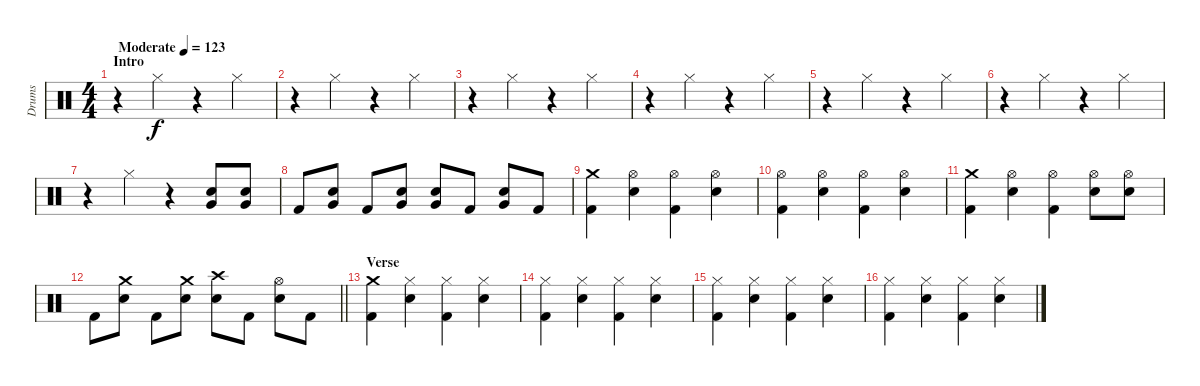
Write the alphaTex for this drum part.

\track ("Drums" "Drums") {instrument percussion}
\staff {score}
\articulation defaults
\ts (4 4)
\section ("" "Intro")
\tempo (123 "Moderate")
\clef neutral
\ks c
r.4{dy f} "Hi-Hat (closed)".4 r.4 "Hi-Hat (closed)".4 |
r.4 "Hi-Hat (closed)".4 r.4 "Hi-Hat (closed)".4 |
r.4 "Hi-Hat (closed)".4 r.4 "Hi-Hat (closed)".4 |
r.4 "Hi-Hat (closed)".4 r.4 "Hi-Hat (closed)".4 |
r.4 "Hi-Hat (closed)".4 r.4 "Hi-Hat (closed)".4 |
r.4 "Hi-Hat (closed)".4 r.4 "Hi-Hat (closed)".4 |
r.4 "Hi-Hat (closed)".4 r.4 ("Electric Snare (hit)" "Very Low Tom (hit)").8 ("Electric Snare (hit)" "Very Low Tom (hit)").8 |
"Kick (hit) 2".8 ("Electric Snare (hit)" "Very Low Tom (hit)").8 "Kick (hit) 2".8 ("Electric Snare (hit)" "Very Low Tom (hit)").8 ("Electric Snare (hit)" "Very Low Tom (hit)").8 "Kick (hit) 2".8 ("Electric Snare (hit)" "Very Low Tom (hit)").8 "Kick (hit) 2".8 |
("Crash medium (hit)" "Kick (hit) 2").4 ("Hi-Hat (open)" "Electric Snare (hit)").4 ("Hi-Hat (open)" "Kick (hit) 2").4 ("Hi-Hat (open)" "Electric Snare (hit)").4 |
("Hi-Hat (open)" "Kick (hit) 2").4 ("Hi-Hat (open)" "Electric Snare (hit)").4 ("Hi-Hat (open)" "Kick (hit) 2").4 ("Hi-Hat (open)" "Electric Snare (hit)").4 |
("Crash medium (hit)" "Kick (hit) 2").4 ("Hi-Hat (open)" "Electric Snare (hit)").4 ("Hi-Hat (open)" "Kick (hit) 2").4 ("Hi-Hat (open)" "Electric Snare (hit)").8 ("Hi-Hat (open)" "Electric Snare (hit)").8 |
\barLineRight lightlight "Kick (hit) 2".8
("Crash medium (hit)" "Electric Snare (hit)").8 "Kick (hit) 2".8 ("Crash medium (hit)" "Electric Snare (hit)").8 ("Crash high (hit)" "Electric Snare (hit)").8 "Kick (hit) 2".8 ("Hi-Hat (open)" "Electric Snare (hit)").8 "Kick (hit) 2".8 |
\section ("" "Verse")
("Crash medium (hit)" "Kick (hit) 2").4 ("Hi-Hat (closed)" "Electric Snare (hit)").4 ("Hi-Hat (closed)" "Kick (hit) 2").4 ("Hi-Hat (closed)" "Electric Snare (hit)").4 |
("Hi-Hat (closed)" "Kick (hit) 2").4 ("Hi-Hat (closed)" "Electric Snare (hit)").4 ("Hi-Hat (closed)" "Kick (hit) 2").4 ("Hi-Hat (closed)" "Electric Snare (hit)").4 |
("Hi-Hat (closed)" "Kick (hit) 2").4 ("Hi-Hat (closed)" "Electric Snare (hit)").4 ("Hi-Hat (closed)" "Kick (hit) 2").4 ("Hi-Hat (closed)" "Electric Snare (hit)").4 |
("Hi-Hat (closed)" "Kick (hit) 2").4 ("Hi-Hat (closed)" "Electric Snare (hit)").4 ("Hi-Hat (closed)" "Kick (hit) 2").4 ("Hi-Hat (closed)" "Electric Snare (hit)").4
